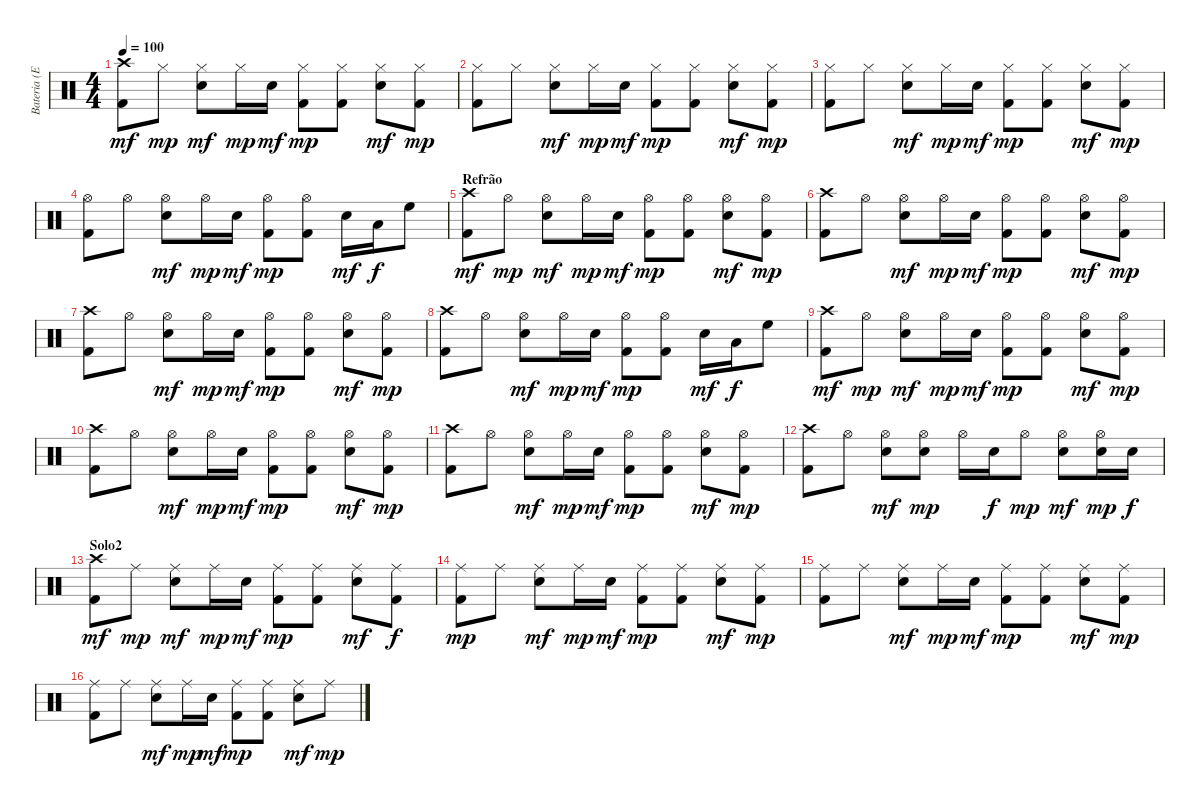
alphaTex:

\track ("Bateria (Eduardo)" "Bateria (E") {instrument percussion}
\staff {score}
\articulation defaults
\ts (4 4)
\tempo 100
\clef neutral
\ks c
("Crash high (hit)" "Kick (hit) 2").8{dy mf} "Hi-Hat (closed)".8{dy mp} ("Hi-Hat (closed)" "Electric Snare (hit)").8{dy mf} "Hi-Hat (closed)".16{dy mp} "Electric Snare (hit)".16{dy mf} ("Hi-Hat (closed)" "Kick (hit) 2").8{dy mp} ("Hi-Hat (closed)" "Kick (hit) 2").8 ("Hi-Hat (closed)" "Electric Snare (hit)").8{dy mf} ("Hi-Hat (closed)" "Kick (hit) 2").8{dy mp} |
("Hi-Hat (closed)" "Kick (hit) 2").8 "Hi-Hat (closed)".8 ("Hi-Hat (closed)" "Electric Snare (hit)").8{dy mf} "Hi-Hat (closed)".16{dy mp} "Electric Snare (hit)".16{dy mf} ("Hi-Hat (closed)" "Kick (hit) 2").8{dy mp} ("Hi-Hat (closed)" "Kick (hit) 2").8 ("Hi-Hat (closed)" "Electric Snare (hit)").8{dy mf} ("Hi-Hat (closed)" "Kick (hit) 2").8{dy mp} |
("Hi-Hat (closed)" "Kick (hit) 2").8 "Hi-Hat (closed)".8 ("Hi-Hat (closed)" "Electric Snare (hit)").8{dy mf} "Hi-Hat (closed)".16{dy mp} "Electric Snare (hit)".16{dy mf} ("Hi-Hat (closed)" "Kick (hit) 2").8{dy mp} ("Hi-Hat (closed)" "Kick (hit) 2").8 ("Hi-Hat (closed)" "Electric Snare (hit)").8{dy mf} ("Hi-Hat (closed)" "Kick (hit) 2").8{dy mp} |
("Hi-Hat (open)" "Kick (hit) 2").8 "Hi-Hat (open)".8 ("Hi-Hat (open)" "Electric Snare (hit)").8{dy mf} "Hi-Hat (open)".16{dy mp} "Electric Snare (hit)".16{dy mf} ("Hi-Hat (open)" "Kick (hit) 2").8{dy mp} ("Hi-Hat (open)" "Kick (hit) 2").8 "Electric Snare (hit)".16{dy mf} "Low Tom (hit)".16{dy f} "High Floor Tom (hit)".8 |
\section ("" "Refrão")
("Crash high (hit)" "Kick (hit) 2").8{dy mf} "Hi-Hat (open)".8{dy mp} ("Hi-Hat (open)" "Electric Snare (hit)").8{dy mf} "Hi-Hat (open)".16{dy mp} "Electric Snare (hit)".16{dy mf} ("Hi-Hat (open)" "Kick (hit) 2").8{dy mp} ("Hi-Hat (open)" "Kick (hit) 2").8 ("Hi-Hat (open)" "Electric Snare (hit)").8{dy mf} ("Hi-Hat (open)" "Kick (hit) 2").8{dy mp} |
("Crash high (hit)" "Kick (hit) 2").8 "Hi-Hat (open)".8 ("Hi-Hat (open)" "Electric Snare (hit)").8{dy mf} "Hi-Hat (open)".16{dy mp} "Electric Snare (hit)".16{dy mf} ("Hi-Hat (open)" "Kick (hit) 2").8{dy mp} ("Hi-Hat (open)" "Kick (hit) 2").8 ("Hi-Hat (open)" "Electric Snare (hit)").8{dy mf} ("Hi-Hat (open)" "Kick (hit) 2").8{dy mp} |
("Crash high (hit)" "Kick (hit) 2").8 "Hi-Hat (open)".8 ("Hi-Hat (open)" "Electric Snare (hit)").8{dy mf} "Hi-Hat (open)".16{dy mp} "Electric Snare (hit)".16{dy mf} ("Hi-Hat (open)" "Kick (hit) 2").8{dy mp} ("Hi-Hat (open)" "Kick (hit) 2").8 ("Hi-Hat (open)" "Electric Snare (hit)").8{dy mf} ("Hi-Hat (open)" "Kick (hit) 2").8{dy mp} |
("Crash high (hit)" "Kick (hit) 2").8 "Hi-Hat (open)".8 ("Hi-Hat (open)" "Electric Snare (hit)").8{dy mf} "Hi-Hat (open)".16{dy mp} "Electric Snare (hit)".16{dy mf} ("Hi-Hat (open)" "Kick (hit) 2").8{dy mp} ("Hi-Hat (open)" "Kick (hit) 2").8 "Electric Snare (hit)".16{dy mf} "Low Tom (hit)".16{dy f} "High Floor Tom (hit)".8 |
("Crash high (hit)" "Kick (hit) 2").8{dy mf} "Hi-Hat (open)".8{dy mp} ("Hi-Hat (open)" "Electric Snare (hit)").8{dy mf} "Hi-Hat (open)".16{dy mp} "Electric Snare (hit)".16{dy mf} ("Hi-Hat (open)" "Kick (hit) 2").8{dy mp} ("Hi-Hat (open)" "Kick (hit) 2").8 ("Hi-Hat (open)" "Electric Snare (hit)").8{dy mf} ("Hi-Hat (open)" "Kick (hit) 2").8{dy mp} |
("Crash high (hit)" "Kick (hit) 2").8 "Hi-Hat (open)".8 ("Hi-Hat (open)" "Electric Snare (hit)").8{dy mf} "Hi-Hat (open)".16{dy mp} "Electric Snare (hit)".16{dy mf} ("Hi-Hat (open)" "Kick (hit) 2").8{dy mp} ("Hi-Hat (open)" "Kick (hit) 2").8 ("Hi-Hat (open)" "Electric Snare (hit)").8{dy mf} ("Hi-Hat (open)" "Kick (hit) 2").8{dy mp} |
("Crash high (hit)" "Kick (hit) 2").8 "Hi-Hat (open)".8 ("Hi-Hat (open)" "Electric Snare (hit)").8{dy mf} "Hi-Hat (open)".16{dy mp} "Electric Snare (hit)".16{dy mf} ("Hi-Hat (open)" "Kick (hit) 2").8{dy mp} ("Hi-Hat (open)" "Kick (hit) 2").8 ("Hi-Hat (open)" "Electric Snare (hit)").8{dy mf} ("Hi-Hat (open)" "Kick (hit) 2").8{dy mp} |
("Crash high (hit)" "Kick (hit) 2").8 "Hi-Hat (open)".8 ("Hi-Hat (open)" "Electric Snare (hit)").8{dy mf} ("Hi-Hat (open)" "Electric Snare (hit)").8{dy mp} "Hi-Hat (open)".16 "Electric Snare (hit)".16{dy f} "Hi-Hat (open)".8{dy mp} ("Hi-Hat (open)" "Electric Snare (hit)").8{dy mf} ("Hi-Hat (open)" "Electric Snare (hit)").16{dy mp} "Electric Snare (hit)".16{dy f} |
\section ("" "Solo2")
("Crash high (hit)" "Kick (hit) 2").8{dy mf} "Ride (middle)".8{dy mp} ("Ride (middle)" "Electric Snare (hit)").8{dy mf} "Ride (middle)".16{dy mp} "Electric Snare (hit)".16{dy mf} ("Ride (middle)" "Kick (hit) 2").8{dy mp} ("Ride (middle)" "Kick (hit) 2").8 ("Ride (middle)" "Electric Snare (hit)").8{dy mf} ("Ride (middle)" "Kick (hit) 2").8{dy f} |
("Ride (middle)" "Kick (hit) 2").8{dy mp} "Ride (middle)".8 ("Ride (middle)" "Electric Snare (hit)").8{dy mf} "Ride (middle)".16{dy mp} "Electric Snare (hit)".16{dy mf} ("Ride (middle)" "Kick (hit) 2").8{dy mp} ("Ride (middle)" "Kick (hit) 2").8 ("Ride (middle)" "Electric Snare (hit)").8{dy mf} ("Ride (middle)" "Kick (hit) 2").8{dy mp} |
("Ride (middle)" "Kick (hit) 2").8 "Ride (middle)".8 ("Ride (middle)" "Electric Snare (hit)").8{dy mf} "Ride (middle)".16{dy mp} "Electric Snare (hit)".16{dy mf} ("Ride (middle)" "Kick (hit) 2").8{dy mp} ("Ride (middle)" "Kick (hit) 2").8 ("Ride (middle)" "Electric Snare (hit)").8{dy mf} ("Ride (middle)" "Kick (hit) 2").8{dy mp} |
("Ride (middle)" "Kick (hit) 2").8 "Ride (middle)".8 ("Ride (middle)" "Electric Snare (hit)").8{dy mf} "Ride (middle)".16{dy mp} "Electric Snare (hit)".16{dy mf} ("Ride (middle)" "Kick (hit) 2").8{dy mp} ("Ride (middle)" "Kick (hit) 2").8 ("Ride (middle)" "Electric Snare (hit)").8{dy mf} "Ride (middle)".8{dy mp}
